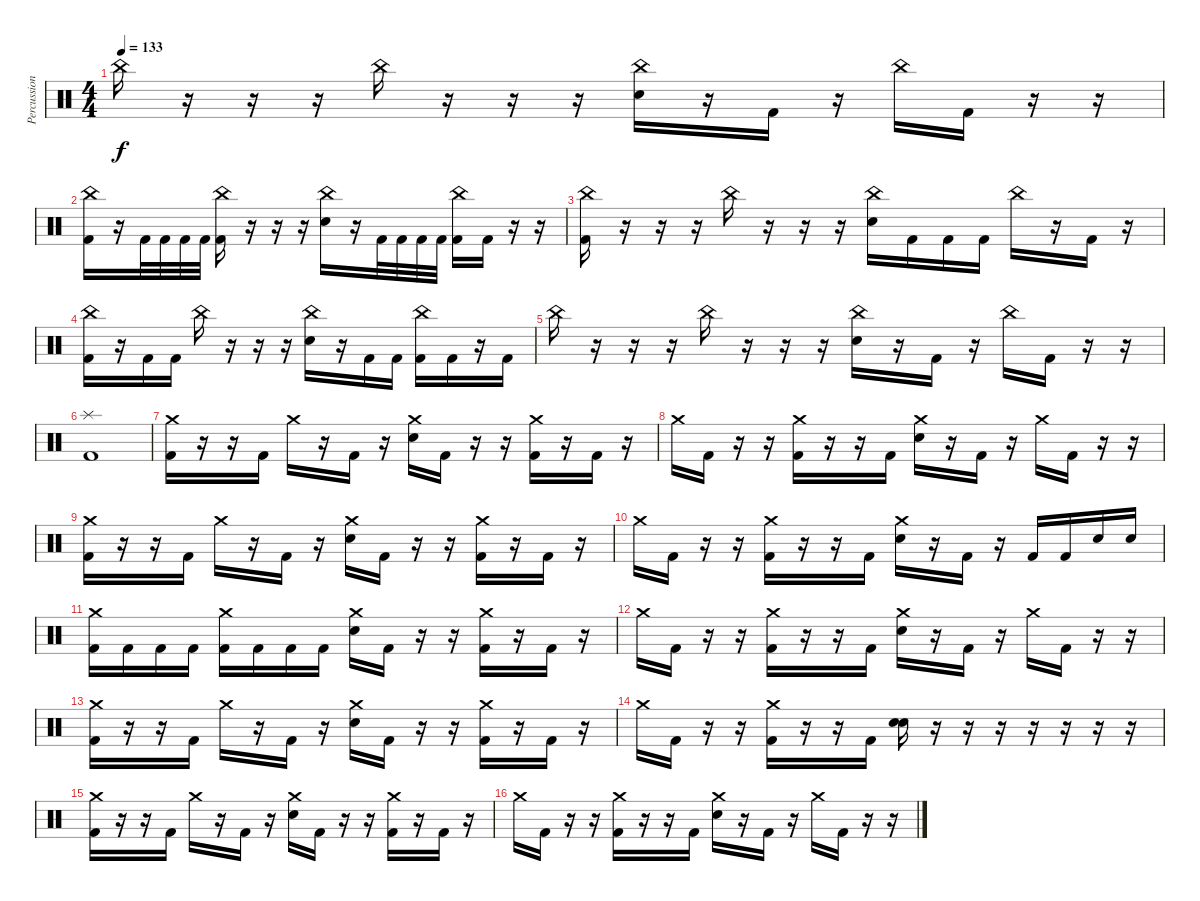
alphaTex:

\track ("Percussion" "Percussion") {instrument percussion}
\staff {score}
\articulation defaults
\ts (4 4)
\tempo 133
\clef neutral
\ks c "China (hit)".16{dy f}
r.16 r.16 r.16 "China (hit)".16 r.16 r.16 r.16 ("China (hit)" "Electric Snare (hit)").16 r.16 "Kick (hit) 2".16 r.16 "China (hit)".16 "Kick (hit) 2".16 r.16 r.16 |
("China (hit)" "Kick (hit) 2").16 r.16 "Kick (hit) 2".32 "Kick (hit) 2".32 "Kick (hit) 2".32 "Kick (hit) 2".32 ("China (hit)" "Kick (hit) 2").16 r.16 r.16 r.16 ("China (hit)" "Electric Snare (hit)").16 r.16 "Kick (hit) 2".32 "Kick (hit) 2".32 "Kick (hit) 2".32 "Kick (hit) 2".32 ("China (hit)" "Kick (hit) 2").16 "Kick (hit) 2".16 r.16 r.16 |
("China (hit)" "Kick (hit) 2").16 r.16 r.16 r.16 "China (hit)".16 r.16 r.16 r.16 ("China (hit)" "Electric Snare (hit)").16 "Kick (hit) 2".16 "Kick (hit) 2".16 "Kick (hit) 2".16 "China (hit)".16 r.16 "Kick (hit) 2".16 r.16 |
("China (hit)" "Kick (hit) 2").16 r.16 "Kick (hit) 2".16 "Kick (hit) 2".16 "China (hit)".16 r.16 r.16 r.16 ("China (hit)" "Electric Snare (hit)").16 r.16 "Kick (hit) 2".16 "Kick (hit) 2".16 ("China (hit)" "Kick (hit) 2").16 "Kick (hit) 2".16 r.16 "Kick (hit) 2".16 |
"China (hit)".16 r.16 r.16 r.16 "China (hit)".16 r.16 r.16 r.16 ("China (hit)" "Electric Snare (hit)").16 r.16 "Kick (hit) 2".16 r.16 "China (hit)".16 "Kick (hit) 2".16 r.16 r.16 |
("Splash (hit)" "Kick (hit) 2").1 |
("Crash medium (hit)" "Kick (hit) 2").16 r.16 r.16 "Kick (hit) 2".16 "Crash medium (hit)".16 r.16 "Kick (hit) 2".16 r.16 ("Crash medium (hit)" "Electric Snare (hit)").16 "Kick (hit) 2".16 r.16 r.16 ("Crash medium (hit)" "Kick (hit) 2").16 r.16 "Kick (hit) 2".16 r.16 |
"Crash medium (hit)".16 "Kick (hit) 2".16 r.16 r.16 ("Crash medium (hit)" "Kick (hit) 2").16 r.16 r.16 "Kick (hit) 2".16 ("Crash medium (hit)" "Electric Snare (hit)").16 r.16 "Kick (hit) 2".16 r.16 "Crash medium (hit)".16 "Kick (hit) 2".16 r.16 r.16 |
("Crash medium (hit)" "Kick (hit) 2").16 r.16 r.16 "Kick (hit) 2".16 "Crash medium (hit)".16 r.16 "Kick (hit) 2".16 r.16 ("Crash medium (hit)" "Electric Snare (hit)").16 "Kick (hit) 2".16 r.16 r.16 ("Crash medium (hit)" "Kick (hit) 2").16 r.16 "Kick (hit) 2".16 r.16 |
"Crash medium (hit)".16 "Kick (hit) 2".16 r.16 r.16 ("Crash medium (hit)" "Kick (hit) 2").16 r.16 r.16 "Kick (hit) 2".16 ("Crash medium (hit)" "Electric Snare (hit)").16 r.16 "Kick (hit) 2".16 r.16 "Kick (hit) 2".16 "Kick (hit) 2".16 "Electric Snare (hit)".16 "Electric Snare (hit)".16 |
("Crash medium (hit)" "Kick (hit) 2").16 "Kick (hit) 2".16 "Kick (hit) 2".16 "Kick (hit) 2".16 ("Crash medium (hit)" "Kick (hit) 2").16 "Kick (hit) 2".16 "Kick (hit) 2".16 "Kick (hit) 2".16 ("Crash medium (hit)" "Electric Snare (hit)").16 "Kick (hit) 2".16 r.16 r.16 ("Crash medium (hit)" "Kick (hit) 2").16 r.16 "Kick (hit) 2".16 r.16 |
"Crash medium (hit)".16 "Kick (hit) 2".16 r.16 r.16 ("Crash medium (hit)" "Kick (hit) 2").16 r.16 r.16 "Kick (hit) 2".16 ("Crash medium (hit)" "Electric Snare (hit)").16 r.16 "Kick (hit) 2".16 r.16 "Crash medium (hit)".16 "Kick (hit) 2".16 r.16 r.16 |
("Crash medium (hit)" "Kick (hit) 2").16 r.16 r.16 "Kick (hit) 2".16 "Crash medium (hit)".16 r.16 "Kick (hit) 2".16 r.16 ("Crash medium (hit)" "Electric Snare (hit)").16 "Kick (hit) 2".16 r.16 r.16 ("Crash medium (hit)" "Kick (hit) 2").16 r.16 "Kick (hit) 2".16 r.16 |
"Crash medium (hit)".16 "Kick (hit) 2".16 r.16 r.16 ("Crash medium (hit)" "Kick (hit) 2").16 r.16 r.16 "Kick (hit) 2".16 ("Electric Snare (hit)" "Electric Snare (hit)").16 r.16 r.16 r.16 r.16 r.16 r.16 r.16 |
("Crash medium (hit)" "Kick (hit) 2").16 r.16 r.16 "Kick (hit) 2".16 "Crash medium (hit)".16 r.16 "Kick (hit) 2".16 r.16 ("Crash medium (hit)" "Electric Snare (hit)").16 "Kick (hit) 2".16 r.16 r.16 ("Crash medium (hit)" "Kick (hit) 2").16 r.16 "Kick (hit) 2".16 r.16 |
"Crash medium (hit)".16 "Kick (hit) 2".16 r.16 r.16 ("Crash medium (hit)" "Kick (hit) 2").16 r.16 r.16 "Kick (hit) 2".16 ("Crash medium (hit)" "Electric Snare (hit)").16 r.16 "Kick (hit) 2".16 r.16 "Crash medium (hit)".16 "Kick (hit) 2".16 r.16 r.16
